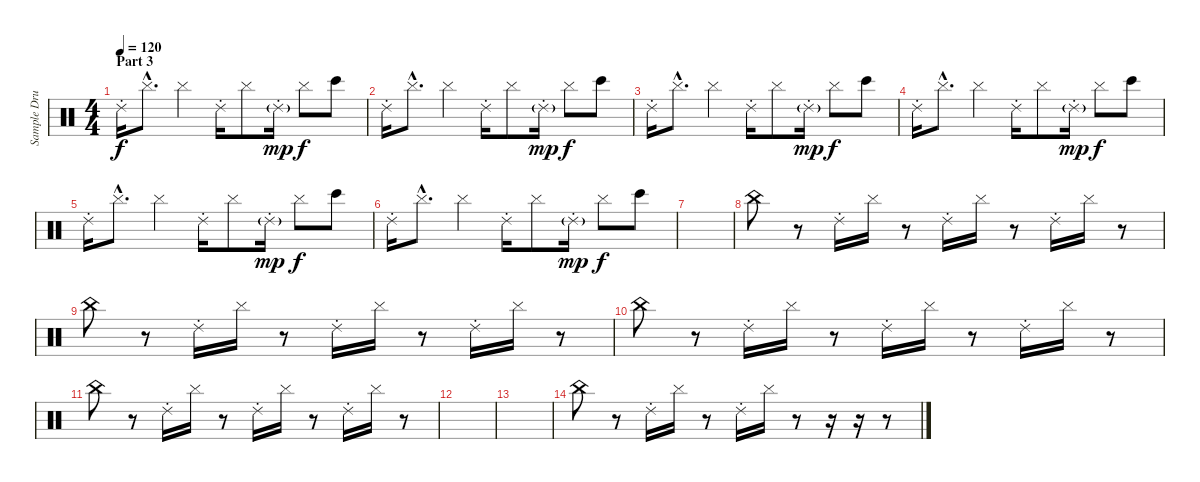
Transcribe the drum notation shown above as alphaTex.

\track ("Sample Drums" "Sample Dru") {instrument percussion}
\staff {score}
\articulation defaults
\ts (4 4)
\section ("" "Part 3")
\tempo 120
\clef neutral
\ks c "Ride (choke) 2".16{dy f} "Cymbal (hit)"{hac}.8{d} "Cymbal (hit)".4 "Ride (choke) 2".16 "Cymbal (hit)".8 "Ride (choke) 2"{g}.16{dy mp} "Cymbal (hit)".8{dy f} "Bongo High (hit)".8
|
"Ride (choke) 2".16 "Cymbal (hit)"{hac}.8{d} "Cymbal (hit)".4 "Ride (choke) 2".16 "Cymbal (hit)".8 "Ride (choke) 2"{g}.16{dy mp} "Cymbal (hit)".8{dy f} "Bongo High (hit)".8 |
"Ride (choke) 2".16 "Cymbal (hit)"{hac}.8{d} "Cymbal (hit)".4 "Ride (choke) 2".16 "Cymbal (hit)".8 "Ride (choke) 2"{g}.16{dy mp} "Cymbal (hit)".8{dy f} "Bongo High (hit)".8 |
"Ride (choke) 2".16 "Cymbal (hit)"{hac}.8{d} "Cymbal (hit)".4 "Ride (choke) 2".16 "Cymbal (hit)".8 "Ride (choke) 2"{g}.16{dy mp} "Cymbal (hit)".8{dy f} "Bongo High (hit)".8 |
"Ride (choke) 2".16 "Cymbal (hit)"{hac}.8{d} "Cymbal (hit)".4 "Ride (choke) 2".16 "Cymbal (hit)".8 "Ride (choke) 2"{g}.16{dy mp} "Cymbal (hit)".8{dy f} "Bongo High (hit)".8 |
"Ride (choke) 2".16 "Cymbal (hit)"{hac}.8{d} "Cymbal (hit)".4 "Ride (choke) 2".16 "Cymbal (hit)".8 "Ride (choke) 2"{g}.16{dy mp} "Cymbal (hit)".8{dy f} "Bongo High (hit)".8 |
|
"China (hit)".8 r.8 "Ride (choke) 2".16 "Cymbal (hit)".16 r.8 "Ride (choke) 2".16 "Cymbal (hit)".16 r.8 "Ride (choke) 2".16 "Cymbal (hit)".16 r.8 |
"China (hit)".8 r.8 "Ride (choke) 2".16 "Cymbal (hit)".16 r.8 "Ride (choke) 2".16 "Cymbal (hit)".16 r.8 "Ride (choke) 2".16 "Cymbal (hit)".16 r.8 |
"China (hit)".8 r.8 "Ride (choke) 2".16 "Cymbal (hit)".16 r.8 "Ride (choke) 2".16 "Cymbal (hit)".16 r.8 "Ride (choke) 2".16 "Cymbal (hit)".16 r.8 |
"China (hit)".8 r.8 "Ride (choke) 2".16 "Cymbal (hit)".16 r.8 "Ride (choke) 2".16 "Cymbal (hit)".16 r.8 "Ride (choke) 2".16 "Cymbal (hit)".16 r.8 |
|
|
"China (hit)".8 r.8 "Ride (choke) 2".16 "Cymbal (hit)".16 r.8 "Ride (choke) 2".16 "Cymbal (hit)".16 r.8 r.16 r.16 r.8
